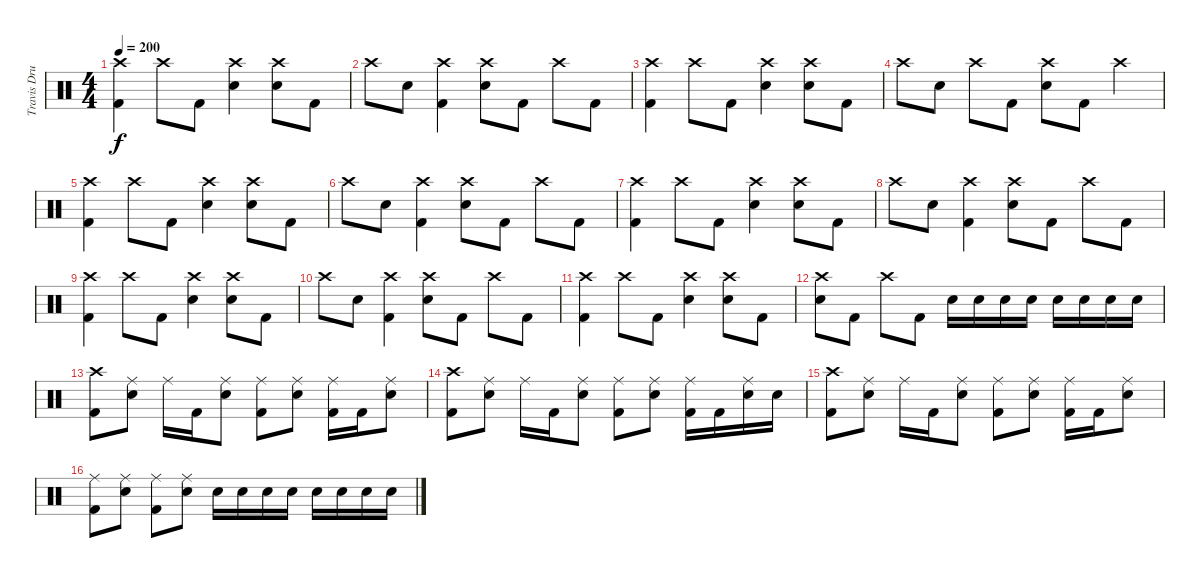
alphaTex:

\track ("Travis Drums" "Travis Dru") {instrument percussion}
\staff {score}
\articulation defaults
\ts (4 4)
\tempo 200
\clef neutral
\ks c
("Crash high (hit)" "Kick (hit) 2").4{dy f} "Crash high (hit)".8 "Kick (hit) 2".8 ("Crash high (hit)" "Electric Snare (hit)").4 ("Crash high (hit)" "Electric Snare (hit)").8 "Kick (hit) 2".8 |
"Crash high (hit)".8 "Electric Snare (hit)".8 ("Crash high (hit)" "Kick (hit) 2").4 ("Crash high (hit)" "Electric Snare (hit)").8 "Kick (hit) 2".8 "Crash high (hit)".8 "Kick (hit) 2".8 |
("Crash high (hit)" "Kick (hit) 2").4 "Crash high (hit)".8 "Kick (hit) 2".8 ("Crash high (hit)" "Electric Snare (hit)").4 ("Crash high (hit)" "Electric Snare (hit)").8 "Kick (hit) 2".8 |
"Crash high (hit)".8 "Electric Snare (hit)".8 "Crash high (hit)".8 "Kick (hit) 2".8 ("Crash high (hit)" "Electric Snare (hit)").8 "Kick (hit) 2".8 "Crash high (hit)".4 |
("Crash high (hit)" "Kick (hit) 2").4 "Crash high (hit)".8 "Kick (hit) 2".8 ("Crash high (hit)" "Electric Snare (hit)").4 ("Crash high (hit)" "Electric Snare (hit)").8 "Kick (hit) 2".8 |
"Crash high (hit)".8 "Electric Snare (hit)".8 ("Crash high (hit)" "Kick (hit) 2").4 ("Crash high (hit)" "Electric Snare (hit)").8 "Kick (hit) 2".8 "Crash high (hit)".8 "Kick (hit) 2".8 |
("Crash high (hit)" "Kick (hit) 2").4 "Crash high (hit)".8 "Kick (hit) 2".8 ("Crash high (hit)" "Electric Snare (hit)").4 ("Crash high (hit)" "Electric Snare (hit)").8 "Kick (hit) 2".8 |
"Crash high (hit)".8 "Electric Snare (hit)".8 ("Crash high (hit)" "Kick (hit) 2").4 ("Crash high (hit)" "Electric Snare (hit)").8 "Kick (hit) 2".8 "Crash high (hit)".8 "Kick (hit) 2".8 |
("Crash high (hit)" "Kick (hit) 2").4 "Crash high (hit)".8 "Kick (hit) 2".8 ("Crash high (hit)" "Electric Snare (hit)").4 ("Crash high (hit)" "Electric Snare (hit)").8 "Kick (hit) 2".8 |
"Crash high (hit)".8 "Electric Snare (hit)".8 ("Crash high (hit)" "Kick (hit) 2").4 ("Crash high (hit)" "Electric Snare (hit)").8 "Kick (hit) 2".8 "Crash high (hit)".8 "Kick (hit) 2".8 |
("Crash high (hit)" "Kick (hit) 2").4 "Crash high (hit)".8 "Kick (hit) 2".8 ("Crash high (hit)" "Electric Snare (hit)").4 ("Crash high (hit)" "Electric Snare (hit)").8 "Kick (hit) 2".8 |
("Crash high (hit)" "Electric Snare (hit)").8 "Kick (hit) 2".8 "Crash high (hit)".8 "Kick (hit) 2".8 "Electric Snare (hit)".16 "Electric Snare (hit)".16 "Electric Snare (hit)".16 "Electric Snare (hit)".16 "Electric Snare (hit)".16 "Electric Snare (hit)".16 "Electric Snare (hit)".16 "Electric Snare (hit)".16 |
("Crash high (hit)" "Kick (hit) 2").8 ("Ride (middle)" "Electric Snare (hit)").8 "Ride (middle)".16 "Kick (hit) 2".16 ("Ride (middle)" "Electric Snare (hit)").8 ("Ride (middle)" "Kick (hit) 2").8 ("Ride (middle)" "Electric Snare (hit)").8 ("Ride (middle)" "Kick (hit) 2").16 "Kick (hit) 2".16 ("Ride (middle)" "Electric Snare (hit)").8 |
("Crash high (hit)" "Kick (hit) 2").8 ("Ride (middle)" "Electric Snare (hit)").8 "Ride (middle)".16 "Kick (hit) 2".16 ("Ride (middle)" "Electric Snare (hit)").8 ("Ride (middle)" "Kick (hit) 2").8 ("Ride (middle)" "Electric Snare (hit)").8 ("Ride (middle)" "Kick (hit) 2").16 "Kick (hit) 2".16 ("Ride (middle)" "Electric Snare (hit)").16 "Electric Snare (hit)".16 |
("Crash high (hit)" "Kick (hit) 2").8 ("Ride (middle)" "Electric Snare (hit)").8 "Ride (middle)".16 "Kick (hit) 2".16 ("Ride (middle)" "Electric Snare (hit)").8 ("Ride (middle)" "Kick (hit) 2").8 ("Ride (middle)" "Electric Snare (hit)").8 ("Ride (middle)" "Kick (hit) 2").16 "Kick (hit) 2".16 ("Ride (middle)" "Electric Snare (hit)").8 |
("Ride (middle)" "Kick (hit) 2").8 ("Ride (middle)" "Electric Snare (hit)").8 ("Ride (middle)" "Kick (hit) 2").8 ("Ride (middle)" "Electric Snare (hit)").8 "Electric Snare (hit)".16 "Electric Snare (hit)".16 "Electric Snare (hit)".16 "Electric Snare (hit)".16 "Electric Snare (hit)".16 "Electric Snare (hit)".16 "Electric Snare (hit)".16 "Electric Snare (hit)".16
